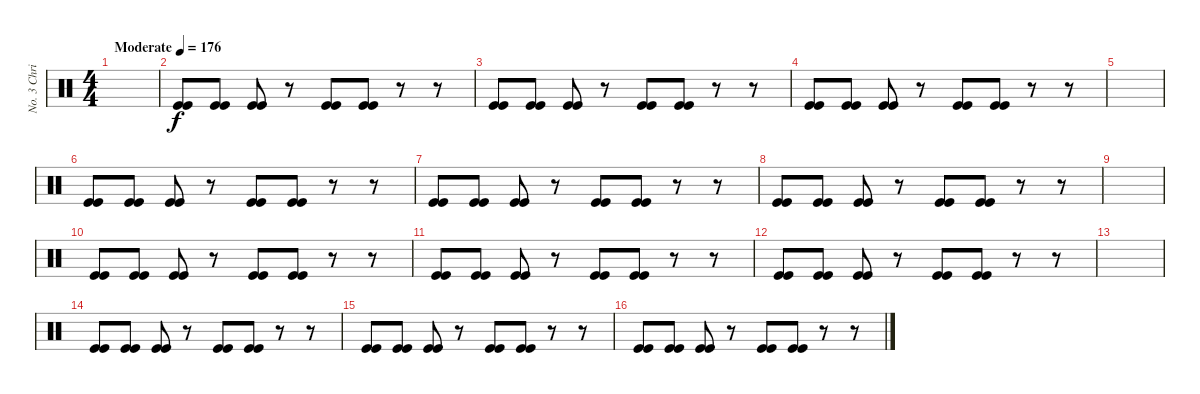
\track ("No. 3 Chris" "No. 3 Chri") {instrument percussion}
\staff {score}
\articulation defaults
\ts (4 4)
\tempo (176 "Moderate")
\clef neutral
\ks c
|
("Kick (hit)" "Kick (hit)").8 ("Kick (hit)" "Kick (hit)").8 ("Kick (hit)" "Kick (hit)").8 r.8 ("Kick (hit)" "Kick (hit)").8 ("Kick (hit)" "Kick (hit)").8 r.8 r.8 |
("Kick (hit)" "Kick (hit)").8 ("Kick (hit)" "Kick (hit)").8 ("Kick (hit)" "Kick (hit)").8 r.8 ("Kick (hit)" "Kick (hit)").8 ("Kick (hit)" "Kick (hit)").8 r.8 r.8 |
("Kick (hit)" "Kick (hit)").8 ("Kick (hit)" "Kick (hit)").8 ("Kick (hit)" "Kick (hit)").8 r.8 ("Kick (hit)" "Kick (hit)").8 ("Kick (hit)" "Kick (hit)").8 r.8 r.8 |
|
("Kick (hit)" "Kick (hit)").8 ("Kick (hit)" "Kick (hit)").8 ("Kick (hit)" "Kick (hit)").8 r.8 ("Kick (hit)" "Kick (hit)").8 ("Kick (hit)" "Kick (hit)").8 r.8 r.8 |
("Kick (hit)" "Kick (hit)").8 ("Kick (hit)" "Kick (hit)").8 ("Kick (hit)" "Kick (hit)").8 r.8 ("Kick (hit)" "Kick (hit)").8 ("Kick (hit)" "Kick (hit)").8 r.8 r.8 |
("Kick (hit)" "Kick (hit)").8 ("Kick (hit)" "Kick (hit)").8 ("Kick (hit)" "Kick (hit)").8 r.8 ("Kick (hit)" "Kick (hit)").8 ("Kick (hit)" "Kick (hit)").8 r.8 r.8 |
|
("Kick (hit)" "Kick (hit)").8 ("Kick (hit)" "Kick (hit)").8 ("Kick (hit)" "Kick (hit)").8 r.8 ("Kick (hit)" "Kick (hit)").8 ("Kick (hit)" "Kick (hit)").8 r.8 r.8 |
("Kick (hit)" "Kick (hit)").8 ("Kick (hit)" "Kick (hit)").8 ("Kick (hit)" "Kick (hit)").8 r.8 ("Kick (hit)" "Kick (hit)").8 ("Kick (hit)" "Kick (hit)").8 r.8 r.8 |
("Kick (hit)" "Kick (hit)").8 ("Kick (hit)" "Kick (hit)").8 ("Kick (hit)" "Kick (hit)").8 r.8 ("Kick (hit)" "Kick (hit)").8 ("Kick (hit)" "Kick (hit)").8 r.8 r.8 |
|
("Kick (hit)" "Kick (hit)").8 ("Kick (hit)" "Kick (hit)").8 ("Kick (hit)" "Kick (hit)").8 r.8 ("Kick (hit)" "Kick (hit)").8 ("Kick (hit)" "Kick (hit)").8 r.8 r.8 |
("Kick (hit)" "Kick (hit)").8 ("Kick (hit)" "Kick (hit)").8 ("Kick (hit)" "Kick (hit)").8 r.8 ("Kick (hit)" "Kick (hit)").8 ("Kick (hit)" "Kick (hit)").8 r.8 r.8 |
("Kick (hit)" "Kick (hit)").8 ("Kick (hit)" "Kick (hit)").8 ("Kick (hit)" "Kick (hit)").8 r.8 ("Kick (hit)" "Kick (hit)").8 ("Kick (hit)" "Kick (hit)").8 r.8 r.8
